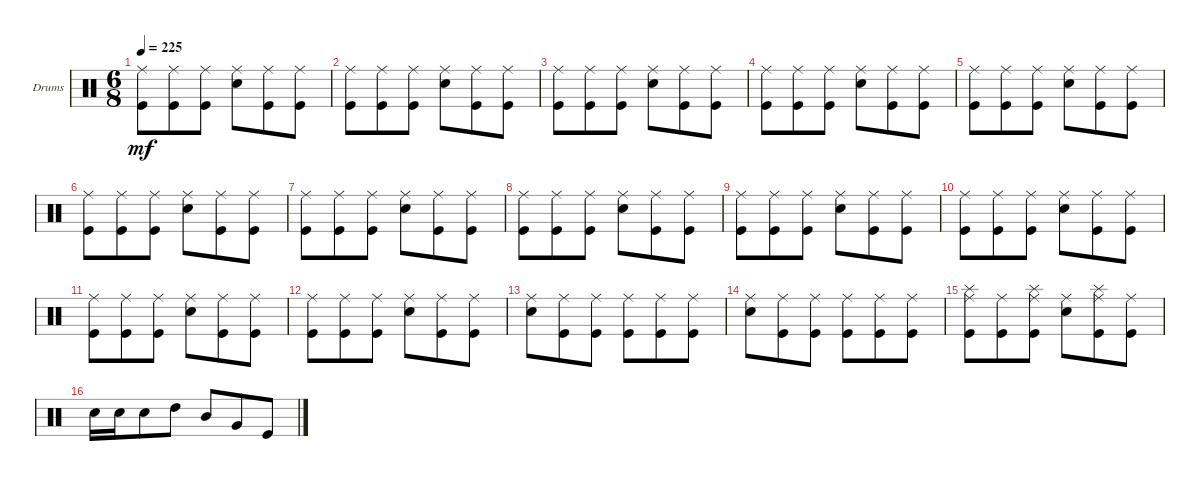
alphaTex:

\bracketExtendMode groupsimilarinstruments
\firstSystemTrackNameOrientation horizontal
\otherSystemsTrackNameOrientation horizontal
\track ("Drumkit" "Drums") {instrument percussion}
\staff {score}
\articulation defaults
\ts (6 8)
\tempo 225
\clef neutral
\ks c
("Kick (hit)" "Ride (middle)").8{dy mf} ("Kick (hit)" "Ride (middle)").8 ("Kick (hit)" "Ride (middle)").8 ("Snare (hit) 2" "Ride (middle)").8 ("Kick (hit)" "Ride (middle)").8 ("Kick (hit)" "Ride (middle)").8 |
("Kick (hit)" "Ride (middle)").8 ("Kick (hit)" "Ride (middle)").8 ("Kick (hit)" "Ride (middle)").8 ("Snare (hit) 2" "Ride (middle)").8 ("Kick (hit)" "Ride (middle)").8 ("Kick (hit)" "Ride (middle)").8 |
("Kick (hit)" "Ride (middle)").8 ("Kick (hit)" "Ride (middle)").8 ("Kick (hit)" "Ride (middle)").8 ("Snare (hit) 2" "Ride (middle)").8 ("Kick (hit)" "Ride (middle)").8 ("Kick (hit)" "Ride (middle)").8 |
("Kick (hit)" "Ride (middle)").8 ("Kick (hit)" "Ride (middle)").8 ("Kick (hit)" "Ride (middle)").8 ("Snare (hit) 2" "Ride (middle)").8 ("Kick (hit)" "Ride (middle)").8 ("Kick (hit)" "Ride (middle)").8 |
("Kick (hit)" "Ride (middle)").8 ("Kick (hit)" "Ride (middle)").8 ("Kick (hit)" "Ride (middle)").8 ("Snare (hit) 2" "Ride (middle)").8 ("Kick (hit)" "Ride (middle)").8 ("Kick (hit)" "Ride (middle)").8 |
("Kick (hit)" "Ride (middle)").8 ("Kick (hit)" "Ride (middle)").8 ("Kick (hit)" "Ride (middle)").8 ("Snare (hit) 2" "Ride (middle)").8 ("Kick (hit)" "Ride (middle)").8 ("Kick (hit)" "Ride (middle)").8 |
("Kick (hit)" "Ride (middle)").8 ("Kick (hit)" "Ride (middle)").8 ("Kick (hit)" "Ride (middle)").8 ("Snare (hit) 2" "Ride (middle)").8 ("Kick (hit)" "Ride (middle)").8 ("Kick (hit)" "Ride (middle)").8 |
("Kick (hit)" "Ride (middle)").8 ("Kick (hit)" "Ride (middle)").8 ("Kick (hit)" "Ride (middle)").8 ("Snare (hit) 2" "Ride (middle)").8 ("Kick (hit)" "Ride (middle)").8 ("Kick (hit)" "Ride (middle)").8 |
("Kick (hit)" "Ride (middle)").8 ("Kick (hit)" "Ride (middle)").8 ("Kick (hit)" "Ride (middle)").8 ("Snare (hit) 2" "Ride (middle)").8 ("Kick (hit)" "Ride (middle)").8 ("Kick (hit)" "Ride (middle)").8 |
("Kick (hit)" "Ride (middle)").8 ("Kick (hit)" "Ride (middle)").8 ("Kick (hit)" "Ride (middle)").8 ("Snare (hit) 2" "Ride (middle)").8 ("Kick (hit)" "Ride (middle)").8 ("Kick (hit)" "Ride (middle)").8 |
("Kick (hit)" "Ride (middle)").8 ("Kick (hit)" "Ride (middle)").8 ("Kick (hit)" "Ride (middle)").8 ("Snare (hit) 2" "Ride (middle)").8 ("Kick (hit)" "Ride (middle)").8 ("Kick (hit)" "Ride (middle)").8 |
("Kick (hit)" "Ride (middle)").8 ("Kick (hit)" "Ride (middle)").8 ("Kick (hit)" "Ride (middle)").8 ("Snare (hit) 2" "Ride (middle)").8 ("Kick (hit)" "Ride (middle)").8 ("Kick (hit)" "Ride (middle)").8 |
("Ride (middle)" "Snare (hit) 2").8 ("Kick (hit)" "Ride (middle)").8 ("Kick (hit)" "Ride (middle)").8 ("Ride (middle)" "Kick (hit)").8 ("Kick (hit)" "Ride (middle)").8 ("Kick (hit)" "Ride (middle)").8 |
("Ride (middle)" "Snare (hit) 2").8 ("Kick (hit)" "Ride (middle)").8 ("Kick (hit)" "Ride (middle)").8 ("Ride (middle)" "Kick (hit)").8 ("Kick (hit)" "Ride (middle)").8 ("Kick (hit)" "Ride (middle)").8 |
("Kick (hit)" "Ride (middle)" "Splash (hit)").8 ("Kick (hit)" "Ride (middle)").8 ("Kick (hit)" "Ride (middle)" "Splash (hit)").8 ("Snare (hit) 2" "Ride (middle)").8 ("Kick (hit)" "Ride (middle)" "Splash (hit)").8 ("Kick (hit)" "Ride (middle)").8 |
"Snare (hit) 2".16 "Snare (hit) 2".16 "Snare (hit) 2".8 "High Tom (hit)".8 "Mid Tom (hit)".8 "Very Low Tom (hit)".8 "Kick (hit)".8
